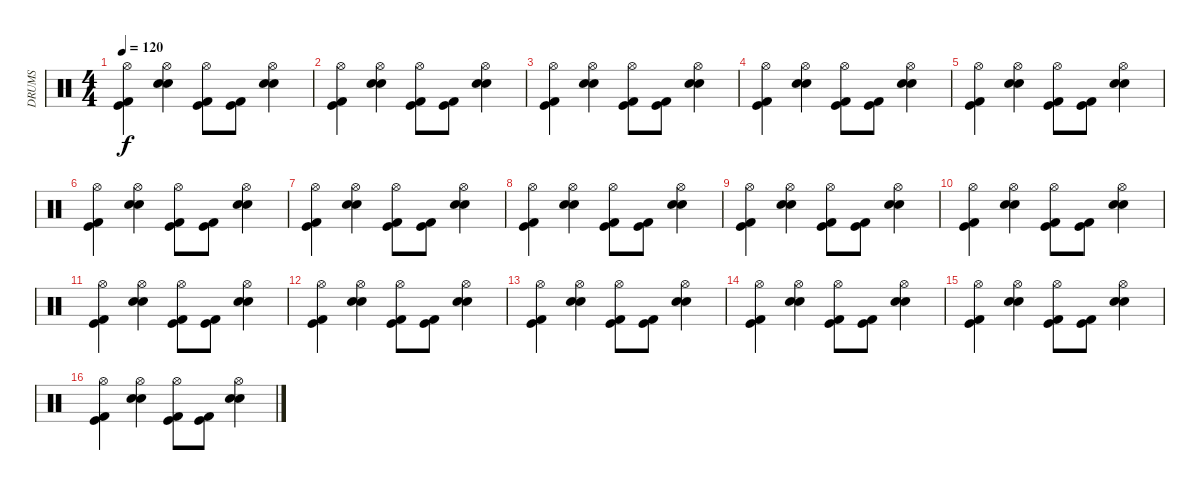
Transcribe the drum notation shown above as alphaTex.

\track ("DRUMS" "DRUMS") {instrument percussion}
\staff {score}
\articulation defaults
\ts (4 4)
\tempo 120
\clef neutral
\ks c
("Kick (hit)" "Kick (hit) 2" "Hi-Hat (open)").4{dy f} ("Snare (hit) 2" "Electric Snare (hit)" "Hi-Hat (open)").4 ("Kick (hit)" "Kick (hit) 2" "Hi-Hat (open)").8 ("Kick (hit)" "Kick (hit) 2").8 ("Snare (hit) 2" "Electric Snare (hit)" "Hi-Hat (open)").4 |
("Kick (hit)" "Kick (hit) 2" "Hi-Hat (open)").4 ("Snare (hit) 2" "Electric Snare (hit)" "Hi-Hat (open)").4 ("Kick (hit)" "Kick (hit) 2" "Hi-Hat (open)").8 ("Kick (hit)" "Kick (hit) 2").8 ("Snare (hit) 2" "Electric Snare (hit)" "Hi-Hat (open)").4 |
("Kick (hit)" "Kick (hit) 2" "Hi-Hat (open)").4 ("Snare (hit) 2" "Electric Snare (hit)" "Hi-Hat (open)").4 ("Kick (hit)" "Kick (hit) 2" "Hi-Hat (open)").8 ("Kick (hit)" "Kick (hit) 2").8 ("Snare (hit) 2" "Electric Snare (hit)" "Hi-Hat (open)").4 |
("Kick (hit)" "Kick (hit) 2" "Hi-Hat (open)").4 ("Snare (hit) 2" "Electric Snare (hit)" "Hi-Hat (open)").4 ("Kick (hit)" "Kick (hit) 2" "Hi-Hat (open)").8 ("Kick (hit)" "Kick (hit) 2").8 ("Snare (hit) 2" "Electric Snare (hit)" "Hi-Hat (open)").4 |
("Kick (hit)" "Kick (hit) 2" "Hi-Hat (open)").4 ("Snare (hit) 2" "Electric Snare (hit)" "Hi-Hat (open)").4 ("Kick (hit)" "Kick (hit) 2" "Hi-Hat (open)").8 ("Kick (hit)" "Kick (hit) 2").8 ("Snare (hit) 2" "Electric Snare (hit)" "Hi-Hat (open)").4 |
("Kick (hit)" "Kick (hit) 2" "Hi-Hat (open)").4 ("Snare (hit) 2" "Electric Snare (hit)" "Hi-Hat (open)").4 ("Kick (hit)" "Kick (hit) 2" "Hi-Hat (open)").8 ("Kick (hit)" "Kick (hit) 2").8 ("Snare (hit) 2" "Electric Snare (hit)" "Hi-Hat (open)").4 |
("Kick (hit)" "Kick (hit) 2" "Hi-Hat (open)").4 ("Snare (hit) 2" "Electric Snare (hit)" "Hi-Hat (open)").4 ("Kick (hit)" "Kick (hit) 2" "Hi-Hat (open)").8 ("Kick (hit)" "Kick (hit) 2").8 ("Snare (hit) 2" "Electric Snare (hit)" "Hi-Hat (open)").4 |
("Kick (hit)" "Kick (hit) 2" "Hi-Hat (open)").4 ("Snare (hit) 2" "Electric Snare (hit)" "Hi-Hat (open)").4 ("Kick (hit)" "Kick (hit) 2" "Hi-Hat (open)").8 ("Kick (hit)" "Kick (hit) 2").8 ("Snare (hit) 2" "Electric Snare (hit)" "Hi-Hat (open)").4 |
("Kick (hit)" "Kick (hit) 2" "Hi-Hat (open)").4 ("Snare (hit) 2" "Electric Snare (hit)" "Hi-Hat (open)").4 ("Kick (hit)" "Kick (hit) 2" "Hi-Hat (open)").8 ("Kick (hit)" "Kick (hit) 2").8 ("Snare (hit) 2" "Electric Snare (hit)" "Hi-Hat (open)").4 |
("Kick (hit)" "Kick (hit) 2" "Hi-Hat (open)").4 ("Snare (hit) 2" "Electric Snare (hit)" "Hi-Hat (open)").4 ("Kick (hit)" "Kick (hit) 2" "Hi-Hat (open)").8 ("Kick (hit)" "Kick (hit) 2").8 ("Snare (hit) 2" "Electric Snare (hit)" "Hi-Hat (open)").4 |
("Kick (hit)" "Kick (hit) 2" "Hi-Hat (open)").4 ("Snare (hit) 2" "Electric Snare (hit)" "Hi-Hat (open)").4 ("Kick (hit)" "Kick (hit) 2" "Hi-Hat (open)").8 ("Kick (hit)" "Kick (hit) 2").8 ("Snare (hit) 2" "Electric Snare (hit)" "Hi-Hat (open)").4 |
("Kick (hit)" "Kick (hit) 2" "Hi-Hat (open)").4 ("Snare (hit) 2" "Electric Snare (hit)" "Hi-Hat (open)").4 ("Kick (hit)" "Kick (hit) 2" "Hi-Hat (open)").8 ("Kick (hit)" "Kick (hit) 2").8 ("Snare (hit) 2" "Electric Snare (hit)" "Hi-Hat (open)").4 |
("Kick (hit)" "Kick (hit) 2" "Hi-Hat (open)").4 ("Snare (hit) 2" "Electric Snare (hit)" "Hi-Hat (open)").4 ("Kick (hit)" "Kick (hit) 2" "Hi-Hat (open)").8 ("Kick (hit)" "Kick (hit) 2").8 ("Snare (hit) 2" "Electric Snare (hit)" "Hi-Hat (open)").4 |
("Kick (hit)" "Kick (hit) 2" "Hi-Hat (open)").4 ("Snare (hit) 2" "Electric Snare (hit)" "Hi-Hat (open)").4 ("Kick (hit)" "Kick (hit) 2" "Hi-Hat (open)").8 ("Kick (hit)" "Kick (hit) 2").8 ("Snare (hit) 2" "Electric Snare (hit)" "Hi-Hat (open)").4 |
("Kick (hit)" "Kick (hit) 2" "Hi-Hat (open)").4 ("Snare (hit) 2" "Electric Snare (hit)" "Hi-Hat (open)").4 ("Kick (hit)" "Kick (hit) 2" "Hi-Hat (open)").8 ("Kick (hit)" "Kick (hit) 2").8 ("Snare (hit) 2" "Electric Snare (hit)" "Hi-Hat (open)").4 |
("Kick (hit)" "Kick (hit) 2" "Hi-Hat (open)").4 ("Snare (hit) 2" "Electric Snare (hit)" "Hi-Hat (open)").4 ("Kick (hit)" "Kick (hit) 2" "Hi-Hat (open)").8 ("Kick (hit)" "Kick (hit) 2").8 ("Snare (hit) 2" "Electric Snare (hit)" "Hi-Hat (open)").4
